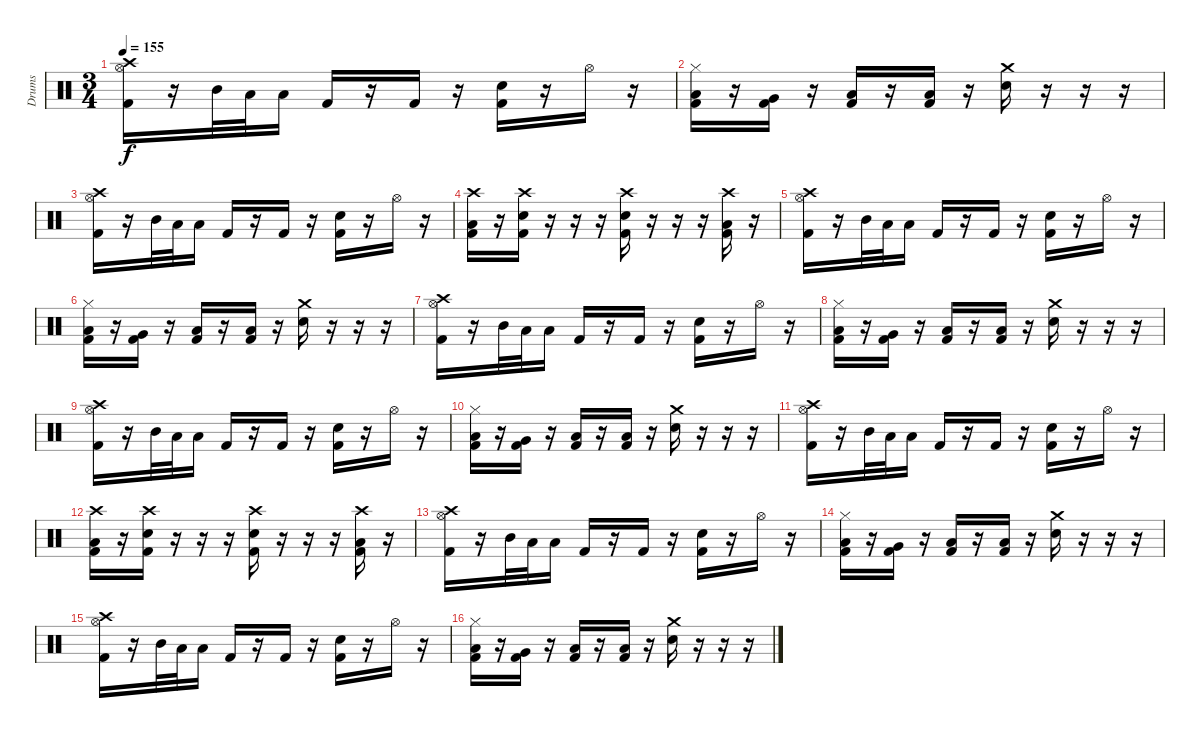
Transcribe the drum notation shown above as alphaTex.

\track ("Drums" "Drums") {instrument percussion}
\staff {score}
\articulation defaults
\ts (3 4)
\tempo 155
\clef neutral
\ks c
("Crash high (hit)" "Hi-Hat (open)" "Kick (hit) 2").16{dy f} r.16 "Mid Tom (hit)".32 "Low Tom (hit)".32 "Low Floor Tom (hit)".16 "Kick (hit) 2".16 r.16 "Kick (hit) 2".16 r.16 ("Snare (hit) 2" "Kick (hit) 2").16 r.16 "Hi-Hat (open)".16 r.16 |
("Hi-Hat (closed)" "Low Tom (hit)" "Kick (hit) 2").16 r.16 ("Very Low Tom (hit)" "Kick (hit) 2").16 r.16 ("Low Floor Tom (hit)" "Kick (hit) 2").16 r.16 ("Low Floor Tom (hit)" "Kick (hit) 2").16 r.16 ("Crash medium (hit)" "Snare (hit) 2").16 r.16 r.16 r.16 |
("Crash high (hit)" "Hi-Hat (open)" "Kick (hit) 2").16 r.16 "Mid Tom (hit)".32 "Low Tom (hit)".32 "Low Floor Tom (hit)".16 "Kick (hit) 2".16 r.16 "Kick (hit) 2".16 r.16 ("Snare (hit) 2" "Kick (hit) 2").16 r.16 "Hi-Hat (open)".16 r.16 |
("Crash high (hit)" "Low Floor Tom (hit)" "Kick (hit) 2").16 r.16 ("Crash high (hit)" "Snare (hit) 2" "Kick (hit) 2").16 r.16 r.16 r.16 ("Crash high (hit)" "Snare (hit) 2" "Kick (hit) 2").16 r.16 r.16 r.16 ("Crash high (hit)" "Low Floor Tom (hit)" "Kick (hit) 2").16 r.16 |
("Crash high (hit)" "Hi-Hat (open)" "Kick (hit) 2").16 r.16 "Mid Tom (hit)".32 "Low Tom (hit)".32 "Low Floor Tom (hit)".16 "Kick (hit) 2".16 r.16 "Kick (hit) 2".16 r.16 ("Snare (hit) 2" "Kick (hit) 2").16 r.16 "Hi-Hat (open)".16 r.16 |
("Hi-Hat (closed)" "Low Tom (hit)" "Kick (hit) 2").16 r.16 ("Very Low Tom (hit)" "Kick (hit) 2").16 r.16 ("Low Floor Tom (hit)" "Kick (hit) 2").16 r.16 ("Low Floor Tom (hit)" "Kick (hit) 2").16 r.16 ("Crash medium (hit)" "Snare (hit) 2").16 r.16 r.16 r.16 |
("Crash high (hit)" "Hi-Hat (open)" "Kick (hit) 2").16 r.16 "Mid Tom (hit)".32 "Low Tom (hit)".32 "Low Floor Tom (hit)".16 "Kick (hit) 2".16 r.16 "Kick (hit) 2".16 r.16 ("Snare (hit) 2" "Kick (hit) 2").16 r.16 "Hi-Hat (open)".16 r.16 |
("Hi-Hat (closed)" "Low Tom (hit)" "Kick (hit) 2").16 r.16 ("Very Low Tom (hit)" "Kick (hit) 2").16 r.16 ("Low Floor Tom (hit)" "Kick (hit) 2").16 r.16 ("Low Floor Tom (hit)" "Kick (hit) 2").16 r.16 ("Crash medium (hit)" "Snare (hit) 2").16 r.16 r.16 r.16 |
("Crash high (hit)" "Hi-Hat (open)" "Kick (hit) 2").16 r.16 "Mid Tom (hit)".32 "Low Tom (hit)".32 "Low Floor Tom (hit)".16 "Kick (hit) 2".16 r.16 "Kick (hit) 2".16 r.16 ("Snare (hit) 2" "Kick (hit) 2").16 r.16 "Hi-Hat (open)".16 r.16 |
("Hi-Hat (closed)" "Low Tom (hit)" "Kick (hit) 2").16 r.16 ("Very Low Tom (hit)" "Kick (hit) 2").16 r.16 ("Low Floor Tom (hit)" "Kick (hit) 2").16 r.16 ("Low Floor Tom (hit)" "Kick (hit) 2").16 r.16 ("Crash medium (hit)" "Snare (hit) 2").16 r.16 r.16 r.16 |
("Crash high (hit)" "Hi-Hat (open)" "Kick (hit) 2").16 r.16 "Mid Tom (hit)".32 "Low Tom (hit)".32 "Low Floor Tom (hit)".16 "Kick (hit) 2".16 r.16 "Kick (hit) 2".16 r.16 ("Snare (hit) 2" "Kick (hit) 2").16 r.16 "Hi-Hat (open)".16 r.16 |
("Crash high (hit)" "Low Floor Tom (hit)" "Kick (hit) 2").16 r.16 ("Crash high (hit)" "Snare (hit) 2" "Kick (hit) 2").16 r.16 r.16 r.16 ("Crash high (hit)" "Snare (hit) 2" "Kick (hit) 2").16 r.16 r.16 r.16 ("Crash high (hit)" "Low Floor Tom (hit)" "Kick (hit) 2").16 r.16 |
("Crash high (hit)" "Hi-Hat (open)" "Kick (hit) 2").16 r.16 "Mid Tom (hit)".32 "Low Tom (hit)".32 "Low Floor Tom (hit)".16 "Kick (hit) 2".16 r.16 "Kick (hit) 2".16 r.16 ("Snare (hit) 2" "Kick (hit) 2").16 r.16 "Hi-Hat (open)".16 r.16 |
("Hi-Hat (closed)" "Low Tom (hit)" "Kick (hit) 2").16 r.16 ("Very Low Tom (hit)" "Kick (hit) 2").16 r.16 ("Low Floor Tom (hit)" "Kick (hit) 2").16 r.16 ("Low Floor Tom (hit)" "Kick (hit) 2").16 r.16 ("Crash medium (hit)" "Snare (hit) 2").16 r.16 r.16 r.16 |
("Crash high (hit)" "Hi-Hat (open)" "Kick (hit) 2").16 r.16 "Mid Tom (hit)".32 "Low Tom (hit)".32 "Low Floor Tom (hit)".16 "Kick (hit) 2".16 r.16 "Kick (hit) 2".16 r.16 ("Snare (hit) 2" "Kick (hit) 2").16 r.16 "Hi-Hat (open)".16 r.16 |
("Hi-Hat (closed)" "Low Tom (hit)" "Kick (hit) 2").16 r.16 ("Very Low Tom (hit)" "Kick (hit) 2").16 r.16 ("Low Floor Tom (hit)" "Kick (hit) 2").16 r.16 ("Low Floor Tom (hit)" "Kick (hit) 2").16 r.16 ("Crash medium (hit)" "Snare (hit) 2").16 r.16 r.16 r.16
